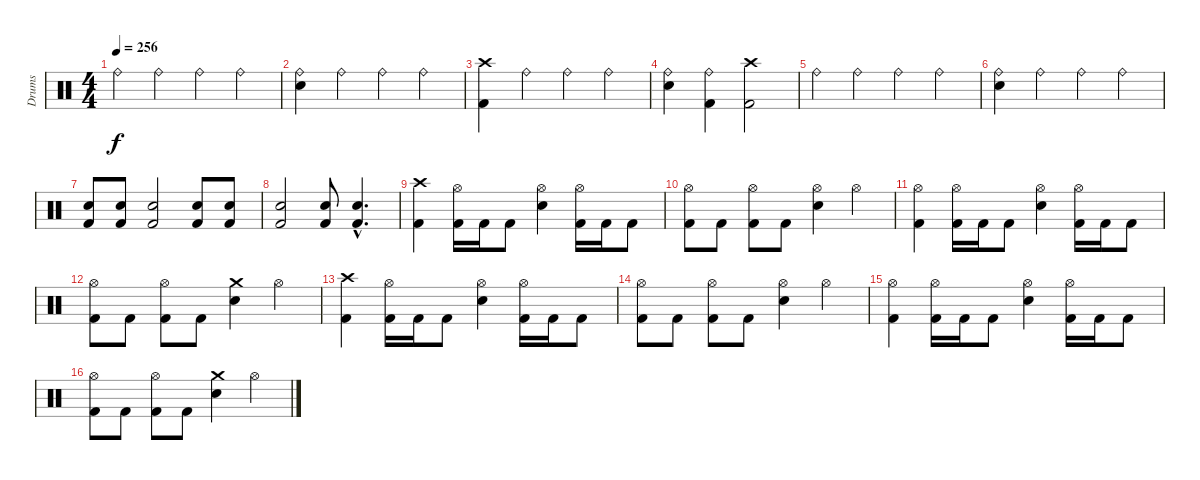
\track ("Drums" "Drums") {instrument percussion}
\staff {score}
\articulation defaults
\ts (4 4)
\tempo 256
\clef neutral
\ks c "Ride (bell)".4{dy f} "Ride (bell)".4 "Ride (bell)".4 "Ride (bell)".4
|
("Electric Snare (hit)" "Ride (bell)").4 "Ride (bell)".4 "Ride (bell)".4 "Ride (bell)".4 |
("Crash high (hit)" "Kick (hit) 2").4 "Ride (bell)".4 "Ride (bell)".4 "Ride (bell)".4 |
("Electric Snare (hit)" "Ride (bell)").4 ("Kick (hit) 2" "Ride (bell)").4 ("Crash high (hit)" "Kick (hit) 2").2 |
"Ride (bell)".4 "Ride (bell)".4 "Ride (bell)".4 "Ride (bell)".4 |
("Electric Snare (hit)" "Ride (bell)").4 "Ride (bell)".4 "Ride (bell)".4 "Ride (bell)".4 |
("Electric Snare (hit)" "Kick (hit) 2").8 ("Electric Snare (hit)" "Kick (hit) 2").8 ("Electric Snare (hit)" "Kick (hit) 2").2 ("Electric Snare (hit)" "Kick (hit) 2").8 ("Electric Snare (hit)" "Kick (hit) 2").8 |
("Electric Snare (hit)" "Kick (hit) 2").2 ("Electric Snare (hit)" "Kick (hit) 2").8 ("Electric Snare (hit)"{hac} "Kick (hit) 2"{hac}).4{d} |
("Crash high (hit)" "Kick (hit) 2").4 ("Hi-Hat (open)" "Kick (hit) 2").16 "Kick (hit) 2".16 "Kick (hit) 2".8 ("Hi-Hat (open)" "Electric Snare (hit)").4 ("Hi-Hat (open)" "Kick (hit) 2").16 "Kick (hit) 2".16 "Kick (hit) 2".8 |
("Hi-Hat (open)" "Kick (hit) 2").8 "Kick (hit) 2".8 ("Hi-Hat (open)" "Kick (hit) 2").8 "Kick (hit) 2".8 ("Hi-Hat (open)" "Electric Snare (hit)").4 "Hi-Hat (open)".4 |
("Hi-Hat (open)" "Kick (hit) 2").4 ("Hi-Hat (open)" "Kick (hit) 2").16 "Kick (hit) 2".16 "Kick (hit) 2".8 ("Hi-Hat (open)" "Electric Snare (hit)").4 ("Hi-Hat (open)" "Kick (hit) 2").16 "Kick (hit) 2".16 "Kick (hit) 2".8 |
("Hi-Hat (open)" "Kick (hit) 2").8 "Kick (hit) 2".8 ("Hi-Hat (open)" "Kick (hit) 2").8 "Kick (hit) 2".8 ("Crash medium (hit)" "Electric Snare (hit)").4 "Hi-Hat (open)".4 |
("Crash high (hit)" "Kick (hit) 2").4 ("Hi-Hat (open)" "Kick (hit) 2").16 "Kick (hit) 2".16 "Kick (hit) 2".8 ("Hi-Hat (open)" "Electric Snare (hit)").4 ("Hi-Hat (open)" "Kick (hit) 2").16 "Kick (hit) 2".16 "Kick (hit) 2".8 |
("Hi-Hat (open)" "Kick (hit) 2").8 "Kick (hit) 2".8 ("Hi-Hat (open)" "Kick (hit) 2").8 "Kick (hit) 2".8 ("Hi-Hat (open)" "Electric Snare (hit)").4 "Hi-Hat (open)".4 |
("Hi-Hat (open)" "Kick (hit) 2").4 ("Hi-Hat (open)" "Kick (hit) 2").16 "Kick (hit) 2".16 "Kick (hit) 2".8 ("Hi-Hat (open)" "Electric Snare (hit)").4 ("Hi-Hat (open)" "Kick (hit) 2").16 "Kick (hit) 2".16 "Kick (hit) 2".8 |
("Hi-Hat (open)" "Kick (hit) 2").8 "Kick (hit) 2".8 ("Hi-Hat (open)" "Kick (hit) 2").8 "Kick (hit) 2".8 ("Crash medium (hit)" "Electric Snare (hit)").4 "Hi-Hat (open)".4
